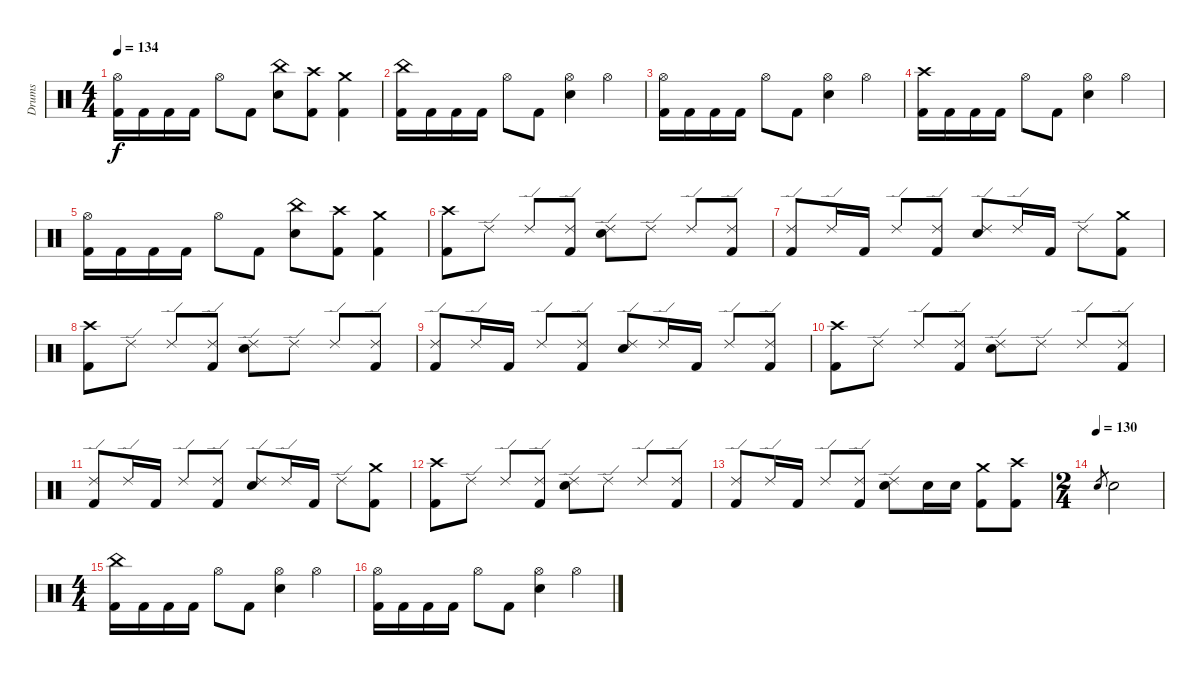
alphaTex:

\track ("Drums" "Drums") {instrument percussion}
\staff {score}
\articulation defaults
\ts (4 4)
\tempo 134
\clef neutral
\ks c
("Hi-Hat (open)" "Kick (hit) 2").16{dy f} "Kick (hit) 2".16 "Kick (hit) 2".16 "Kick (hit) 2".16 "Hi-Hat (open)".8 "Kick (hit) 2".8 ("China (hit)" "Electric Snare (hit)").8 ("Crash high (hit)" "Kick (hit) 2").8 ("Crash medium (hit)" "Kick (hit) 2").4 |
("China (hit)" "Kick (hit) 2").16 "Kick (hit) 2".16 "Kick (hit) 2".16 "Kick (hit) 2".16 "Hi-Hat (open)".8 "Kick (hit) 2".8 ("Hi-Hat (open)" "Electric Snare (hit)").4 "Hi-Hat (open)".4 |
("Hi-Hat (open)" "Kick (hit) 2").16 "Kick (hit) 2".16 "Kick (hit) 2".16 "Kick (hit) 2".16 "Hi-Hat (open)".8 "Kick (hit) 2".8 ("Hi-Hat (open)" "Electric Snare (hit)").4 "Hi-Hat (open)".4 |
("Crash high (hit)" "Kick (hit) 2").16 "Kick (hit) 2".16 "Kick (hit) 2".16 "Kick (hit) 2".16 "Hi-Hat (open)".8 "Kick (hit) 2".8 ("Hi-Hat (open)" "Electric Snare (hit)").4 "Hi-Hat (open)".4 |
("Hi-Hat (open)" "Kick (hit) 2").16 "Kick (hit) 2".16 "Kick (hit) 2".16 "Kick (hit) 2".16 "Hi-Hat (open)".8 "Kick (hit) 2".8 ("China (hit)" "Electric Snare (hit)").8 ("Crash high (hit)" "Kick (hit) 2").8 ("Crash medium (hit)" "Kick (hit) 2").4 |
("Crash high (hit)" "Kick (hit) 2").8 "Ride (edge) 2".8 "Ride (edge) 2".8 ("Ride (edge) 2" "Kick (hit) 2").8 ("Ride (edge) 2" "Electric Snare (hit)").8 "Ride (edge) 2".8 "Ride (edge) 2".8 ("Ride (edge) 2" "Kick (hit) 2").8 |
("Ride (edge) 2" "Kick (hit) 2").8 "Ride (edge) 2".16 "Kick (hit) 2".16 "Ride (edge) 2".8 ("Ride (edge) 2" "Kick (hit) 2").8 ("Ride (edge) 2" "Electric Snare (hit)").8 "Ride (edge) 2".16 "Kick (hit) 2".16 "Ride (edge) 2".8 ("Crash medium (hit)" "Kick (hit) 2").8 |
("Crash high (hit)" "Kick (hit) 2").8 "Ride (edge) 2".8 "Ride (edge) 2".8 ("Ride (edge) 2" "Kick (hit) 2").8 ("Ride (edge) 2" "Electric Snare (hit)").8 "Ride (edge) 2".8 "Ride (edge) 2".8 ("Ride (edge) 2" "Kick (hit) 2").8 |
("Ride (edge) 2" "Kick (hit) 2").8 "Ride (edge) 2".16 "Kick (hit) 2".16 "Ride (edge) 2".8 ("Ride (edge) 2" "Kick (hit) 2").8 ("Ride (edge) 2" "Electric Snare (hit)").8 "Ride (edge) 2".16 "Kick (hit) 2".16 "Ride (edge) 2".8 ("Ride (edge) 2" "Kick (hit) 2").8 |
("Crash high (hit)" "Kick (hit) 2").8 "Ride (edge) 2".8 "Ride (edge) 2".8 ("Ride (edge) 2" "Kick (hit) 2").8 ("Ride (edge) 2" "Electric Snare (hit)").8 "Ride (edge) 2".8 "Ride (edge) 2".8 ("Ride (edge) 2" "Kick (hit) 2").8 |
("Ride (edge) 2" "Kick (hit) 2").8 "Ride (edge) 2".16 "Kick (hit) 2".16 "Ride (edge) 2".8 ("Ride (edge) 2" "Kick (hit) 2").8 ("Ride (edge) 2" "Electric Snare (hit)").8 "Ride (edge) 2".16 "Kick (hit) 2".16 "Ride (edge) 2".8 ("Crash medium (hit)" "Kick (hit) 2").8 |
("Crash high (hit)" "Kick (hit) 2").8 "Ride (edge) 2".8 "Ride (edge) 2".8 ("Ride (edge) 2" "Kick (hit) 2").8 ("Ride (edge) 2" "Electric Snare (hit)").8 "Ride (edge) 2".8 "Ride (edge) 2".8 ("Ride (edge) 2" "Kick (hit) 2").8 |
("Ride (edge) 2" "Kick (hit) 2").8 "Ride (edge) 2".16 "Kick (hit) 2".16 "Ride (edge) 2".8 ("Ride (edge) 2" "Kick (hit) 2").8 ("Ride (edge) 2" "Electric Snare (hit)").8 "Electric Snare (hit)".16 "Electric Snare (hit)".16 ("Crash medium (hit)" "Kick (hit) 2").8 ("Crash high (hit)" "Kick (hit) 2").8 |
\ts (2 4)
\tempo (130)
"Electric Snare (hit)".8{gr} "Electric Snare (hit)".2 |
\ts (4 4)
("China (hit)" "Kick (hit) 2").16 "Kick (hit) 2".16 "Kick (hit) 2".16 "Kick (hit) 2".16 "Hi-Hat (open)".8 "Kick (hit) 2".8 ("Hi-Hat (open)" "Electric Snare (hit)").4 "Hi-Hat (open)".4 |
("Hi-Hat (open)" "Kick (hit) 2").16 "Kick (hit) 2".16 "Kick (hit) 2".16 "Kick (hit) 2".16 "Hi-Hat (open)".8 "Kick (hit) 2".8 ("Hi-Hat (open)" "Electric Snare (hit)").4 "Hi-Hat (open)".4
